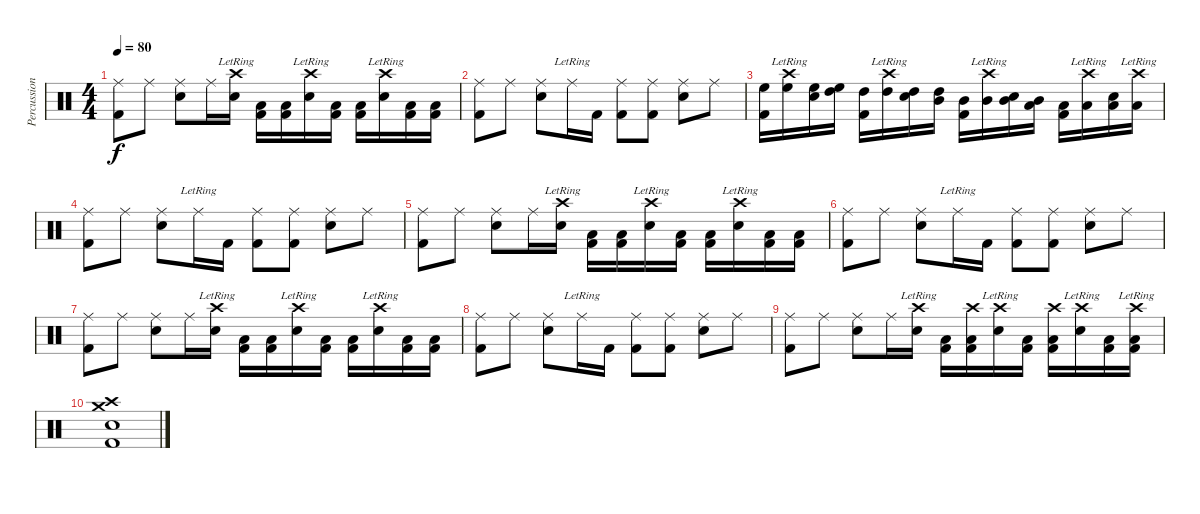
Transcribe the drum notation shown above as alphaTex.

\track ("Percussions" "Percussion") {instrument percussion}
\staff {score}
\articulation defaults
\ts (4 4)
\tempo 80
\clef neutral
\ks c
("Kick (hit) 2" "Ride (middle)").8{dy f} "Ride (middle)".8 ("Snare (hit) 2" "Ride (middle)").8 "Ride (middle)".16 ("Snare (hit) 2" "Crash high (hit)"{lr}).16 ("Kick (hit) 2" "Low Tom (hit)").16 ("Kick (hit) 2" "Low Tom (hit)").16 ("Snare (hit) 2" "Crash high (hit)"{lr}).16 ("Kick (hit) 2" "Low Tom (hit)").16 ("Kick (hit) 2" "Low Tom (hit)").16 ("Snare (hit) 2" "Crash high (hit)"{lr}).16 ("Kick (hit) 2" "Low Tom (hit)").16 ("Kick (hit) 2" "Low Tom (hit)").16 |
("Kick (hit) 2" "Ride (middle)").8 "Ride (middle)".8 ("Snare (hit) 2" "Ride (middle)").8 "Ride (middle)"{lr}.16 "Kick (hit) 2".16 ("Kick (hit) 2" "Ride (middle)").8 ("Kick (hit) 2" "Ride (middle)").8 ("Snare (hit) 2" "Ride (middle)").8 "Ride (middle)".8 |
("Kick (hit) 2" "High Floor Tom (hit)").16 ("High Floor Tom (hit)" "Crash high (hit)"{lr}).16 ("Snare (hit) 2" "High Floor Tom (hit)").16 ("High Tom (hit)" "High Floor Tom (hit)").16 ("Kick (hit) 2" "High Tom (hit)").16 ("High Tom (hit)" "Crash high (hit)"{lr}).16 ("Snare (hit) 2" "High Tom (hit)").16 ("Mid Tom (hit)" "High Tom (hit)").16 ("Kick (hit) 2" "Mid Tom (hit)").16 ("Mid Tom (hit)" "Crash high (hit)"{lr}).16 ("Snare (hit) 2" "Mid Tom (hit)").16 ("Low Tom (hit)" "Mid Tom (hit)").16 ("Kick (hit) 2" "Low Tom (hit)").16 ("Low Tom (hit)" "Crash high (hit)"{lr}).16 ("Snare (hit) 2" "Low Tom (hit)").16 ("Low Tom (hit)" "Crash high (hit)"{lr}).16 |
("Kick (hit) 2" "Ride (middle)").8 "Ride (middle)".8 ("Snare (hit) 2" "Ride (middle)").8 "Ride (middle)"{lr}.16 "Kick (hit) 2".16 ("Kick (hit) 2" "Ride (middle)").8 ("Kick (hit) 2" "Ride (middle)").8 ("Snare (hit) 2" "Ride (middle)").8 "Ride (middle)".8 |
("Kick (hit) 2" "Ride (middle)").8 "Ride (middle)".8 ("Snare (hit) 2" "Ride (middle)").8 "Ride (middle)".16 ("Snare (hit) 2" "Crash high (hit)"{lr}).16 ("Kick (hit) 2" "Low Tom (hit)").16 ("Kick (hit) 2" "Low Tom (hit)").16 ("Snare (hit) 2" "Crash high (hit)"{lr}).16 ("Kick (hit) 2" "Low Tom (hit)").16 ("Kick (hit) 2" "Low Tom (hit)").16 ("Snare (hit) 2" "Crash high (hit)"{lr}).16 ("Kick (hit) 2" "Low Tom (hit)").16 ("Kick (hit) 2" "Low Tom (hit)").16 |
("Kick (hit) 2" "Ride (middle)").8 "Ride (middle)".8 ("Snare (hit) 2" "Ride (middle)").8 "Ride (middle)"{lr}.16 "Kick (hit) 2".16 ("Kick (hit) 2" "Ride (middle)").8 ("Kick (hit) 2" "Ride (middle)").8 ("Snare (hit) 2" "Ride (middle)").8 "Ride (middle)".8 |
("Kick (hit) 2" "Ride (middle)").8 "Ride (middle)".8 ("Snare (hit) 2" "Ride (middle)").8 "Ride (middle)".16 ("Snare (hit) 2" "Crash high (hit)"{lr}).16 ("Kick (hit) 2" "Low Tom (hit)").16 ("Kick (hit) 2" "Low Tom (hit)").16 ("Snare (hit) 2" "Crash high (hit)"{lr}).16 ("Kick (hit) 2" "Low Tom (hit)").16 ("Kick (hit) 2" "Low Tom (hit)").16 ("Snare (hit) 2" "Crash high (hit)"{lr}).16 ("Kick (hit) 2" "Low Tom (hit)").16 ("Kick (hit) 2" "Low Tom (hit)").16 |
("Kick (hit) 2" "Ride (middle)").8 "Ride (middle)".8 ("Snare (hit) 2" "Ride (middle)").8 "Ride (middle)"{lr}.16 "Kick (hit) 2".16 ("Kick (hit) 2" "Ride (middle)").8 ("Kick (hit) 2" "Ride (middle)").8 ("Snare (hit) 2" "Ride (middle)").8 "Ride (middle)".8 |
("Kick (hit) 2" "Ride (middle)").8 "Ride (middle)".8 ("Snare (hit) 2" "Ride (middle)").8 "Ride (middle)".16 ("Snare (hit) 2" "Crash high (hit)"{lr}).16 ("Kick (hit) 2" "Low Tom (hit)").16 ("Kick (hit) 2" "Low Tom (hit)" "Crash high (hit)").16 ("Snare (hit) 2" "Crash high (hit)"{lr}).16 ("Kick (hit) 2" "Low Tom (hit)").16 ("Kick (hit) 2" "Low Tom (hit)" "Crash high (hit)").16 ("Snare (hit) 2" "Crash high (hit)"{lr}).16 ("Kick (hit) 2" "Low Tom (hit)").16 ("Kick (hit) 2" "Low Tom (hit)" "Crash high (hit)"{lr}).16 |
("Kick (hit) 2" "Snare (hit) 2" "Crash medium (hit)" "Crash high (hit)").1
